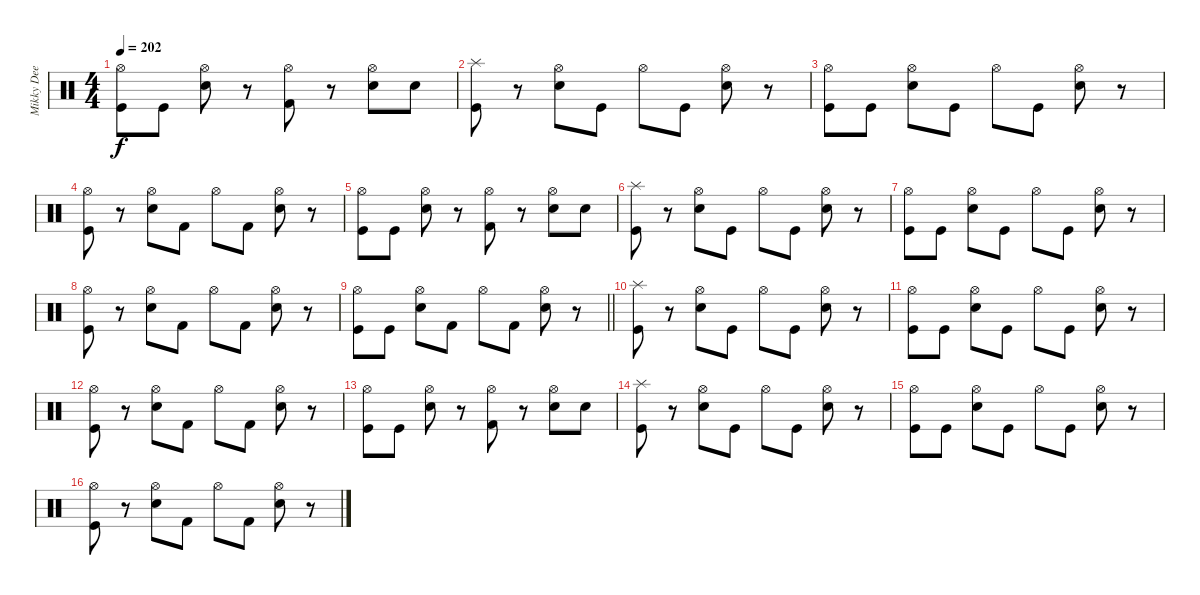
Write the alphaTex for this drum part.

\track ("Mikky Dee" "Mikky Dee") {instrument percussion}
\staff {score}
\articulation defaults
\ts (4 4)
\tempo 202
\clef neutral
\ks c
("Hi-Hat (open)" "Kick (hit)").8{dy f} "Kick (hit)".8 ("Hi-Hat (open)" "Electric Snare (hit)").8 r.8 ("Hi-Hat (open)" "Kick (hit) 2").8 r.8 ("Hi-Hat (open)" "Electric Snare (hit)").8 "Electric Snare (hit)".8 |
("Splash (hit)" "Kick (hit)").8 r.8 ("Hi-Hat (open)" "Electric Snare (hit)").8 "Kick (hit)".8 "Hi-Hat (open)".8 "Kick (hit)".8 ("Hi-Hat (open)" "Electric Snare (hit)").8 r.8 |
("Hi-Hat (open)" "Kick (hit)").8 "Kick (hit)".8 ("Hi-Hat (open)" "Electric Snare (hit)").8 "Kick (hit)".8 "Hi-Hat (open)".8 "Kick (hit)".8 ("Hi-Hat (open)" "Electric Snare (hit)").8 r.8 |
("Hi-Hat (open)" "Kick (hit)").8 r.8 ("Hi-Hat (open)" "Electric Snare (hit)").8 "Kick (hit) 2".8 "Hi-Hat (open)".8 "Kick (hit) 2".8 ("Hi-Hat (open)" "Electric Snare (hit)").8 r.8 |
("Hi-Hat (open)" "Kick (hit)").8 "Kick (hit)".8 ("Hi-Hat (open)" "Electric Snare (hit)").8 r.8 ("Hi-Hat (open)" "Kick (hit) 2").8 r.8 ("Hi-Hat (open)" "Electric Snare (hit)").8 "Electric Snare (hit)".8 |
("Splash (hit)" "Kick (hit)").8 r.8 ("Hi-Hat (open)" "Electric Snare (hit)").8 "Kick (hit)".8 "Hi-Hat (open)".8 "Kick (hit)".8 ("Hi-Hat (open)" "Electric Snare (hit)").8 r.8 |
("Hi-Hat (open)" "Kick (hit)").8 "Kick (hit)".8 ("Hi-Hat (open)" "Electric Snare (hit)").8 "Kick (hit)".8 "Hi-Hat (open)".8 "Kick (hit)".8 ("Hi-Hat (open)" "Electric Snare (hit)").8 r.8 |
("Hi-Hat (open)" "Kick (hit)").8 r.8 ("Hi-Hat (open)" "Electric Snare (hit)").8 "Kick (hit) 2".8 "Hi-Hat (open)".8 "Kick (hit) 2".8 ("Hi-Hat (open)" "Electric Snare (hit)").8 r.8 |
\barLineRight lightlight
("Hi-Hat (open)" "Kick (hit)").8 "Kick (hit)".8 ("Hi-Hat (open)" "Electric Snare (hit)").8 "Kick (hit) 2".8 "Hi-Hat (open)".8 "Kick (hit) 2".8 ("Hi-Hat (open)" "Electric Snare (hit)").8 r.8 |
("Splash (hit)" "Kick (hit)").8 r.8 ("Hi-Hat (open)" "Electric Snare (hit)").8 "Kick (hit)".8 "Hi-Hat (open)".8 "Kick (hit)".8 ("Hi-Hat (open)" "Electric Snare (hit)").8 r.8 |
("Hi-Hat (open)" "Kick (hit)").8 "Kick (hit)".8 ("Hi-Hat (open)" "Electric Snare (hit)").8 "Kick (hit)".8 "Hi-Hat (open)".8 "Kick (hit)".8 ("Hi-Hat (open)" "Electric Snare (hit)").8 r.8 |
("Hi-Hat (open)" "Kick (hit)").8 r.8 ("Hi-Hat (open)" "Electric Snare (hit)").8 "Kick (hit) 2".8 "Hi-Hat (open)".8 "Kick (hit) 2".8 ("Hi-Hat (open)" "Electric Snare (hit)").8 r.8 |
("Hi-Hat (open)" "Kick (hit)").8 "Kick (hit)".8 ("Hi-Hat (open)" "Electric Snare (hit)").8 r.8 ("Hi-Hat (open)" "Kick (hit) 2").8 r.8 ("Hi-Hat (open)" "Electric Snare (hit)").8 "Electric Snare (hit)".8 |
("Splash (hit)" "Kick (hit)").8 r.8 ("Hi-Hat (open)" "Electric Snare (hit)").8 "Kick (hit)".8 "Hi-Hat (open)".8 "Kick (hit)".8 ("Hi-Hat (open)" "Electric Snare (hit)").8 r.8 |
("Hi-Hat (open)" "Kick (hit)").8 "Kick (hit)".8 ("Hi-Hat (open)" "Electric Snare (hit)").8 "Kick (hit)".8 "Hi-Hat (open)".8 "Kick (hit)".8 ("Hi-Hat (open)" "Electric Snare (hit)").8 r.8 |
("Hi-Hat (open)" "Kick (hit)").8 r.8 ("Hi-Hat (open)" "Electric Snare (hit)").8 "Kick (hit) 2".8 "Hi-Hat (open)".8 "Kick (hit) 2".8 ("Hi-Hat (open)" "Electric Snare (hit)").8 r.8
